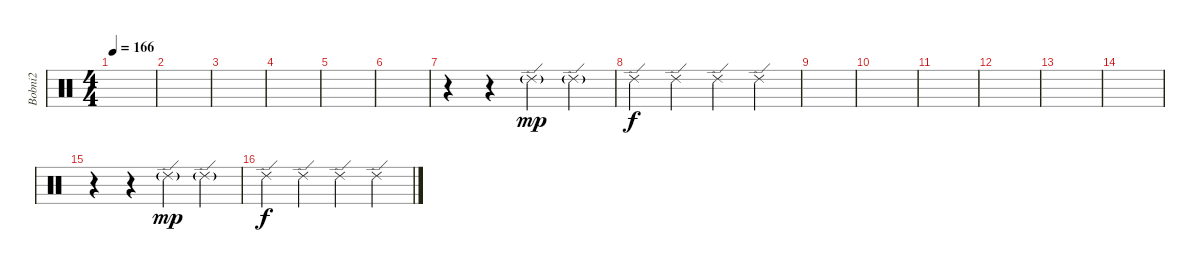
\track ("Bobni2" "Bobni2") {instrument percussion}
\staff {score}
\articulation defaults
\ts (4 4)
\tempo 166
\clef neutral
\ks c
|
|
|
|
|
|
r.4 r.4 "Ride (edge) 2"{g}.4{dy mp} "Ride (edge) 2"{g}.4 |
"Ride (edge) 2".4{dy f} "Ride (edge) 2".4 "Ride (edge) 2".4 "Ride (edge) 2".4 |
|
|
|
|
|
|
r.4 r.4 "Ride (edge) 2"{g}.4{dy mp} "Ride (edge) 2"{g}.4 |
"Ride (edge) 2".4{dy f} "Ride (edge) 2".4 "Ride (edge) 2".4 "Ride (edge) 2".4
